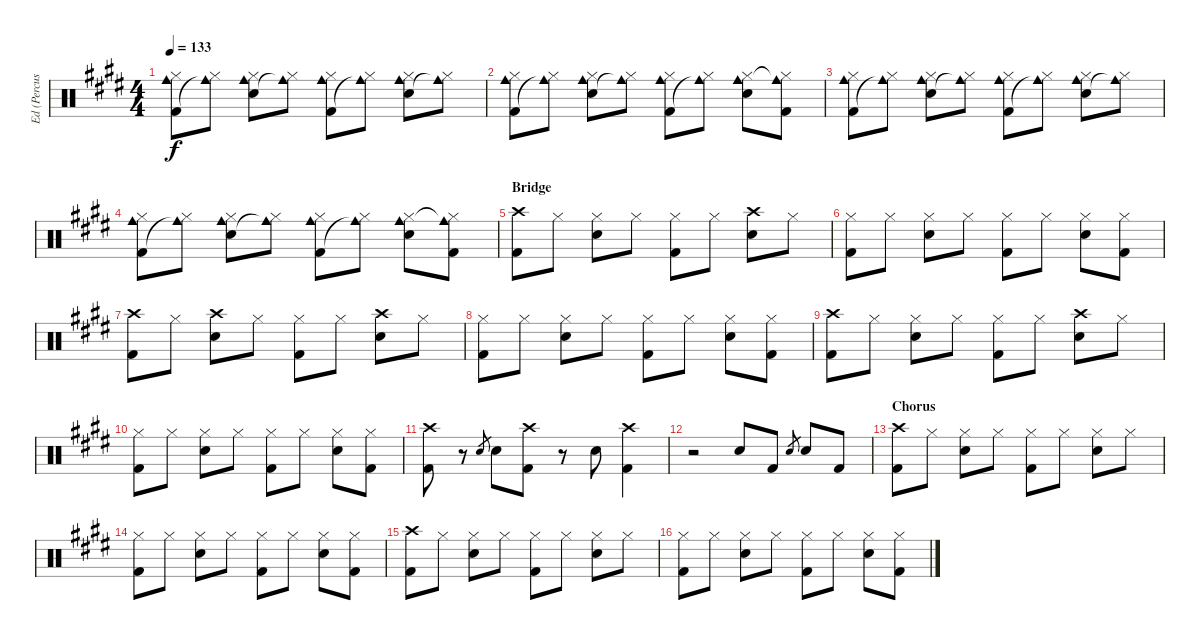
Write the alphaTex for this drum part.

\track ("Ed (Percussion/Drums)" "Ed (Percus") {instrument percussion}
\staff {score}
\articulation defaults
\ts (4 4)
\tempo 133
\clef neutral
\ks e
("Hi-Hat (closed)" "Kick (hit) 2" "Cowbell medium (hit)").8{dy f} ("Hi-Hat (closed)" "Cowbell medium (hit)"{t}).8 ("Hi-Hat (closed)" "Snare (hit) 2" "Cowbell medium (hit)").8 ("Hi-Hat (closed)" "Cowbell medium (hit)"{t}).8 ("Hi-Hat (closed)" "Kick (hit) 2" "Cowbell medium (hit)").8 ("Hi-Hat (closed)" "Cowbell medium (hit)"{t}).8 ("Hi-Hat (closed)" "Snare (hit) 2" "Cowbell medium (hit)").8 ("Hi-Hat (closed)" "Cowbell medium (hit)"{t}).8 |
("Hi-Hat (closed)" "Kick (hit) 2" "Cowbell medium (hit)").8 ("Hi-Hat (closed)" "Cowbell medium (hit)"{t}).8 ("Hi-Hat (closed)" "Snare (hit) 2" "Cowbell medium (hit)").8 ("Hi-Hat (closed)" "Cowbell medium (hit)"{t}).8 ("Hi-Hat (closed)" "Kick (hit) 2" "Cowbell medium (hit)").8 ("Hi-Hat (closed)" "Cowbell medium (hit)"{t}).8 ("Hi-Hat (closed)" "Snare (hit) 2" "Cowbell medium (hit)").8 ("Hi-Hat (closed)" "Kick (hit) 2" "Cowbell medium (hit)"{t}).8 |
("Hi-Hat (closed)" "Kick (hit) 2" "Cowbell medium (hit)").8 ("Hi-Hat (closed)" "Cowbell medium (hit)"{t}).8 ("Hi-Hat (closed)" "Snare (hit) 2" "Cowbell medium (hit)").8 ("Hi-Hat (closed)" "Cowbell medium (hit)"{t}).8 ("Hi-Hat (closed)" "Kick (hit) 2" "Cowbell medium (hit)").8 ("Hi-Hat (closed)" "Cowbell medium (hit)"{t}).8 ("Hi-Hat (closed)" "Snare (hit) 2" "Cowbell medium (hit)").8 ("Hi-Hat (closed)" "Cowbell medium (hit)"{t}).8 |
("Hi-Hat (closed)" "Kick (hit) 2" "Cowbell medium (hit)").8 ("Hi-Hat (closed)" "Cowbell medium (hit)"{t}).8 ("Hi-Hat (closed)" "Snare (hit) 2" "Cowbell medium (hit)").8 ("Hi-Hat (closed)" "Cowbell medium (hit)"{t}).8 ("Hi-Hat (closed)" "Kick (hit) 2" "Cowbell medium (hit)").8 ("Hi-Hat (closed)" "Cowbell medium (hit)"{t}).8 ("Hi-Hat (closed)" "Snare (hit) 2" "Cowbell medium (hit)").8 ("Hi-Hat (closed)" "Kick (hit) 2" "Cowbell medium (hit)"{t}).8 |
\section ("" "Bridge")
("Crash high (hit)" "Kick (hit) 2").8 "Hi-Hat (closed)".8 ("Hi-Hat (closed)" "Snare (hit) 2").8 "Hi-Hat (closed)".8 ("Hi-Hat (closed)" "Kick (hit) 2").8 "Hi-Hat (closed)".8 ("Crash high (hit)" "Snare (hit) 2").8 "Hi-Hat (closed)".8 |
("Hi-Hat (closed)" "Kick (hit) 2").8 "Hi-Hat (closed)".8 ("Hi-Hat (closed)" "Snare (hit) 2").8 "Hi-Hat (closed)".8 ("Hi-Hat (closed)" "Kick (hit) 2").8 "Hi-Hat (closed)".8 ("Hi-Hat (closed)" "Snare (hit) 2").8 ("Hi-Hat (closed)" "Kick (hit) 2").8 |
("Crash high (hit)" "Kick (hit) 2").8 "Hi-Hat (closed)".8 ("Crash high (hit)" "Snare (hit) 2").8 "Hi-Hat (closed)".8 ("Hi-Hat (closed)" "Kick (hit) 2").8 "Hi-Hat (closed)".8 ("Crash high (hit)" "Snare (hit) 2").8 "Hi-Hat (closed)".8 |
("Hi-Hat (closed)" "Kick (hit) 2").8 "Hi-Hat (closed)".8 ("Hi-Hat (closed)" "Snare (hit) 2").8 "Hi-Hat (closed)".8 ("Hi-Hat (closed)" "Kick (hit) 2").8 "Hi-Hat (closed)".8 ("Hi-Hat (closed)" "Snare (hit) 2").8 ("Hi-Hat (closed)" "Kick (hit) 2").8 |
("Crash high (hit)" "Kick (hit) 2").8 "Hi-Hat (closed)".8 ("Hi-Hat (closed)" "Snare (hit) 2").8 "Hi-Hat (closed)".8 ("Hi-Hat (closed)" "Kick (hit) 2").8 "Hi-Hat (closed)".8 ("Crash high (hit)" "Snare (hit) 2").8 "Hi-Hat (closed)".8 |
("Hi-Hat (closed)" "Kick (hit) 2").8 "Hi-Hat (closed)".8 ("Hi-Hat (closed)" "Snare (hit) 2").8 "Hi-Hat (closed)".8 ("Hi-Hat (closed)" "Kick (hit) 2").8 "Hi-Hat (closed)".8 ("Hi-Hat (closed)" "Snare (hit) 2").8 ("Hi-Hat (closed)" "Kick (hit) 2").8 |
("Crash high (hit)" "Kick (hit) 2").8 r.8 "Snare (hit) 2".8{gr} "Snare (hit) 2".8 ("Crash high (hit)" "Kick (hit) 2").8 r.8 "Snare (hit) 2".8 ("Crash high (hit)" "Kick (hit) 2").4 |
r.2 "Snare (hit) 2".8 "Kick (hit) 2".8 "Snare (hit) 2".8{gr} "Snare (hit) 2".8 "Kick (hit) 2".8 |
\section ("" "Chorus")
("Crash high (hit)" "Kick (hit) 2").8 "Hi-Hat (closed)".8 ("Hi-Hat (closed)" "Snare (hit) 2").8 "Hi-Hat (closed)".8 ("Hi-Hat (closed)" "Kick (hit) 2").8 "Hi-Hat (closed)".8 ("Hi-Hat (closed)" "Snare (hit) 2").8 "Hi-Hat (closed)".8 |
("Hi-Hat (closed)" "Kick (hit) 2").8 "Hi-Hat (closed)".8 ("Hi-Hat (closed)" "Snare (hit) 2").8 "Hi-Hat (closed)".8 ("Hi-Hat (closed)" "Kick (hit) 2").8 "Hi-Hat (closed)".8 ("Hi-Hat (closed)" "Snare (hit) 2").8 ("Hi-Hat (closed)" "Kick (hit) 2").8 |
("Crash high (hit)" "Kick (hit) 2").8 "Hi-Hat (closed)".8 ("Hi-Hat (closed)" "Snare (hit) 2").8 "Hi-Hat (closed)".8 ("Hi-Hat (closed)" "Kick (hit) 2").8 "Hi-Hat (closed)".8 ("Hi-Hat (closed)" "Snare (hit) 2").8 "Hi-Hat (closed)".8 |
("Hi-Hat (closed)" "Kick (hit) 2").8 "Hi-Hat (closed)".8 ("Hi-Hat (closed)" "Snare (hit) 2").8 "Hi-Hat (closed)".8 ("Hi-Hat (closed)" "Kick (hit) 2").8 "Hi-Hat (closed)".8 ("Hi-Hat (closed)" "Snare (hit) 2").8 ("Hi-Hat (closed)" "Kick (hit) 2").8
